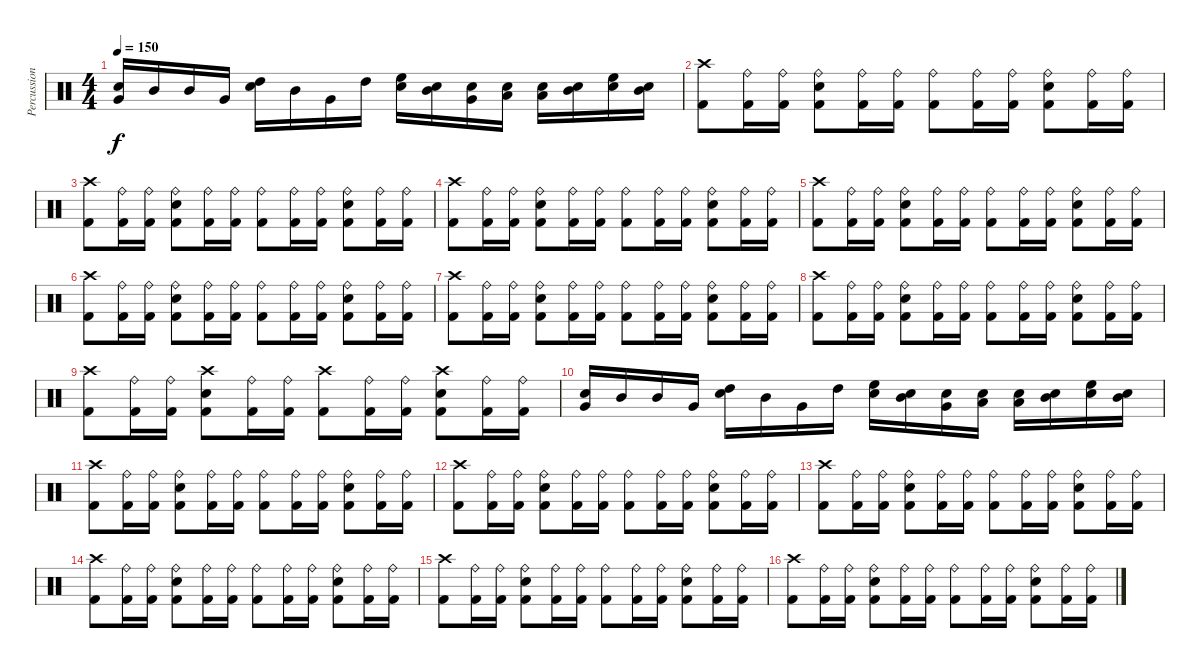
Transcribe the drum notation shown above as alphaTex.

\track ("Percussion" "Percussion") {instrument percussion}
\staff {score}
\articulation defaults
\ts (4 4)
\tempo 150
\clef neutral
\ks c
("Electric Snare (hit)" "Very Low Tom (hit)").16{dy f} "Mid Tom (hit)".16 "Mid Tom (hit)".16 "Very Low Tom (hit)".16 ("Electric Snare (hit)" "High Tom (hit)").16 "Mid Tom (hit)".16 "Very Low Tom (hit)".16 "High Tom (hit)".16 ("Electric Snare (hit)" "High Floor Tom (hit)").16 ("Electric Snare (hit)" "Mid Tom (hit)").16 ("Electric Snare (hit)" "Very Low Tom (hit)").16 ("Electric Snare (hit)" "Low Tom (hit)").16 ("Electric Snare (hit)" "Low Tom (hit)").16 ("Electric Snare (hit)" "Mid Tom (hit)").16 ("Electric Snare (hit)" "High Floor Tom (hit)").16 ("Electric Snare (hit)" "Mid Tom (hit)").16 |
("Crash high (hit)" "Kick (hit) 2").8 ("Ride (bell)" "Kick (hit) 2").16 ("Ride (bell)" "Kick (hit) 2").16 ("Ride (bell)" "Snare (hit) 2" "Kick (hit) 2").8 ("Ride (bell)" "Kick (hit) 2").16 ("Ride (bell)" "Kick (hit) 2").16 ("Ride (bell)" "Kick (hit) 2").8 ("Ride (bell)" "Kick (hit) 2").16 ("Ride (bell)" "Kick (hit) 2").16 ("Ride (bell)" "Snare (hit) 2" "Kick (hit) 2").8 ("Ride (bell)" "Kick (hit) 2").16 ("Ride (bell)" "Kick (hit) 2").16 |
("Crash high (hit)" "Kick (hit) 2").8 ("Ride (bell)" "Kick (hit) 2").16 ("Ride (bell)" "Kick (hit) 2").16 ("Ride (bell)" "Snare (hit) 2" "Kick (hit) 2").8 ("Ride (bell)" "Kick (hit) 2").16 ("Ride (bell)" "Kick (hit) 2").16 ("Ride (bell)" "Kick (hit) 2").8 ("Ride (bell)" "Kick (hit) 2").16 ("Ride (bell)" "Kick (hit) 2").16 ("Ride (bell)" "Snare (hit) 2" "Kick (hit) 2").8 ("Ride (bell)" "Kick (hit) 2").16 ("Ride (bell)" "Kick (hit) 2").16 |
("Crash high (hit)" "Kick (hit) 2").8 ("Ride (bell)" "Kick (hit) 2").16 ("Ride (bell)" "Kick (hit) 2").16 ("Ride (bell)" "Snare (hit) 2" "Kick (hit) 2").8 ("Ride (bell)" "Kick (hit) 2").16 ("Ride (bell)" "Kick (hit) 2").16 ("Ride (bell)" "Kick (hit) 2").8 ("Ride (bell)" "Kick (hit) 2").16 ("Ride (bell)" "Kick (hit) 2").16 ("Ride (bell)" "Snare (hit) 2" "Kick (hit) 2").8 ("Ride (bell)" "Kick (hit) 2").16 ("Ride (bell)" "Kick (hit) 2").16 |
("Crash high (hit)" "Kick (hit) 2").8 ("Ride (bell)" "Kick (hit) 2").16 ("Ride (bell)" "Kick (hit) 2").16 ("Ride (bell)" "Snare (hit) 2" "Kick (hit) 2").8 ("Ride (bell)" "Kick (hit) 2").16 ("Ride (bell)" "Kick (hit) 2").16 ("Ride (bell)" "Kick (hit) 2").8 ("Ride (bell)" "Kick (hit) 2").16 ("Ride (bell)" "Kick (hit) 2").16 ("Ride (bell)" "Snare (hit) 2" "Kick (hit) 2").8 ("Ride (bell)" "Kick (hit) 2").16 ("Ride (bell)" "Kick (hit) 2").16 |
("Crash high (hit)" "Kick (hit) 2").8 ("Ride (bell)" "Kick (hit) 2").16 ("Ride (bell)" "Kick (hit) 2").16 ("Ride (bell)" "Snare (hit) 2" "Kick (hit) 2").8 ("Ride (bell)" "Kick (hit) 2").16 ("Ride (bell)" "Kick (hit) 2").16 ("Ride (bell)" "Kick (hit) 2").8 ("Ride (bell)" "Kick (hit) 2").16 ("Ride (bell)" "Kick (hit) 2").16 ("Ride (bell)" "Snare (hit) 2" "Kick (hit) 2").8 ("Ride (bell)" "Kick (hit) 2").16 ("Ride (bell)" "Kick (hit) 2").16 |
("Crash high (hit)" "Kick (hit) 2").8 ("Ride (bell)" "Kick (hit) 2").16 ("Ride (bell)" "Kick (hit) 2").16 ("Ride (bell)" "Snare (hit) 2" "Kick (hit) 2").8 ("Ride (bell)" "Kick (hit) 2").16 ("Ride (bell)" "Kick (hit) 2").16 ("Ride (bell)" "Kick (hit) 2").8 ("Ride (bell)" "Kick (hit) 2").16 ("Ride (bell)" "Kick (hit) 2").16 ("Ride (bell)" "Snare (hit) 2" "Kick (hit) 2").8 ("Ride (bell)" "Kick (hit) 2").16 ("Ride (bell)" "Kick (hit) 2").16 |
("Crash high (hit)" "Kick (hit) 2").8 ("Ride (bell)" "Kick (hit) 2").16 ("Ride (bell)" "Kick (hit) 2").16 ("Ride (bell)" "Snare (hit) 2" "Kick (hit) 2").8 ("Ride (bell)" "Kick (hit) 2").16 ("Ride (bell)" "Kick (hit) 2").16 ("Ride (bell)" "Kick (hit) 2").8 ("Ride (bell)" "Kick (hit) 2").16 ("Ride (bell)" "Kick (hit) 2").16 ("Ride (bell)" "Snare (hit) 2" "Kick (hit) 2").8 ("Ride (bell)" "Kick (hit) 2").16 ("Ride (bell)" "Kick (hit) 2").16 |
("Crash high (hit)" "Kick (hit) 2").8 ("Ride (bell)" "Kick (hit) 2").16 ("Ride (bell)" "Kick (hit) 2").16 ("Crash high (hit)" "Snare (hit) 2" "Kick (hit) 2").8 ("Ride (bell)" "Kick (hit) 2").16 ("Ride (bell)" "Kick (hit) 2").16 ("Crash high (hit)" "Kick (hit) 2").8 ("Ride (bell)" "Kick (hit) 2").16 ("Ride (bell)" "Kick (hit) 2").16 ("Crash high (hit)" "Snare (hit) 2" "Kick (hit) 2").8 ("Ride (bell)" "Kick (hit) 2").16 ("Ride (bell)" "Kick (hit) 2").16 |
("Electric Snare (hit)" "Very Low Tom (hit)").16 "Mid Tom (hit)".16 "Mid Tom (hit)".16 "Very Low Tom (hit)".16 ("Electric Snare (hit)" "High Tom (hit)").16 "Mid Tom (hit)".16 "Very Low Tom (hit)".16 "High Tom (hit)".16 ("Electric Snare (hit)" "High Floor Tom (hit)").16 ("Electric Snare (hit)" "Mid Tom (hit)").16 ("Electric Snare (hit)" "Very Low Tom (hit)").16 ("Electric Snare (hit)" "Low Tom (hit)").16 ("Electric Snare (hit)" "Low Tom (hit)").16 ("Electric Snare (hit)" "Mid Tom (hit)").16 ("Electric Snare (hit)" "High Floor Tom (hit)").16 ("Electric Snare (hit)" "Mid Tom (hit)").16 |
("Crash high (hit)" "Kick (hit) 2").8 ("Ride (bell)" "Kick (hit) 2").16 ("Ride (bell)" "Kick (hit) 2").16 ("Ride (bell)" "Snare (hit) 2" "Kick (hit) 2").8 ("Ride (bell)" "Kick (hit) 2").16 ("Ride (bell)" "Kick (hit) 2").16 ("Ride (bell)" "Kick (hit) 2").8 ("Ride (bell)" "Kick (hit) 2").16 ("Ride (bell)" "Kick (hit) 2").16 ("Ride (bell)" "Snare (hit) 2" "Kick (hit) 2").8 ("Ride (bell)" "Kick (hit) 2").16 ("Ride (bell)" "Kick (hit) 2").16 |
("Crash high (hit)" "Kick (hit) 2").8 ("Ride (bell)" "Kick (hit) 2").16 ("Ride (bell)" "Kick (hit) 2").16 ("Ride (bell)" "Snare (hit) 2" "Kick (hit) 2").8 ("Ride (bell)" "Kick (hit) 2").16 ("Ride (bell)" "Kick (hit) 2").16 ("Ride (bell)" "Kick (hit) 2").8 ("Ride (bell)" "Kick (hit) 2").16 ("Ride (bell)" "Kick (hit) 2").16 ("Ride (bell)" "Snare (hit) 2" "Kick (hit) 2").8 ("Ride (bell)" "Kick (hit) 2").16 ("Ride (bell)" "Kick (hit) 2").16 |
("Crash high (hit)" "Kick (hit) 2").8 ("Ride (bell)" "Kick (hit) 2").16 ("Ride (bell)" "Kick (hit) 2").16 ("Ride (bell)" "Snare (hit) 2" "Kick (hit) 2").8 ("Ride (bell)" "Kick (hit) 2").16 ("Ride (bell)" "Kick (hit) 2").16 ("Ride (bell)" "Kick (hit) 2").8 ("Ride (bell)" "Kick (hit) 2").16 ("Ride (bell)" "Kick (hit) 2").16 ("Ride (bell)" "Snare (hit) 2" "Kick (hit) 2").8 ("Ride (bell)" "Kick (hit) 2").16 ("Ride (bell)" "Kick (hit) 2").16 |
("Crash high (hit)" "Kick (hit) 2").8 ("Ride (bell)" "Kick (hit) 2").16 ("Ride (bell)" "Kick (hit) 2").16 ("Ride (bell)" "Snare (hit) 2" "Kick (hit) 2").8 ("Ride (bell)" "Kick (hit) 2").16 ("Ride (bell)" "Kick (hit) 2").16 ("Ride (bell)" "Kick (hit) 2").8 ("Ride (bell)" "Kick (hit) 2").16 ("Ride (bell)" "Kick (hit) 2").16 ("Ride (bell)" "Snare (hit) 2" "Kick (hit) 2").8 ("Ride (bell)" "Kick (hit) 2").16 ("Ride (bell)" "Kick (hit) 2").16 |
("Crash high (hit)" "Kick (hit) 2").8 ("Ride (bell)" "Kick (hit) 2").16 ("Ride (bell)" "Kick (hit) 2").16 ("Ride (bell)" "Snare (hit) 2" "Kick (hit) 2").8 ("Ride (bell)" "Kick (hit) 2").16 ("Ride (bell)" "Kick (hit) 2").16 ("Ride (bell)" "Kick (hit) 2").8 ("Ride (bell)" "Kick (hit) 2").16 ("Ride (bell)" "Kick (hit) 2").16 ("Ride (bell)" "Snare (hit) 2" "Kick (hit) 2").8 ("Ride (bell)" "Kick (hit) 2").16 ("Ride (bell)" "Kick (hit) 2").16 |
("Crash high (hit)" "Kick (hit) 2").8 ("Ride (bell)" "Kick (hit) 2").16 ("Ride (bell)" "Kick (hit) 2").16 ("Ride (bell)" "Snare (hit) 2" "Kick (hit) 2").8 ("Ride (bell)" "Kick (hit) 2").16 ("Ride (bell)" "Kick (hit) 2").16 ("Ride (bell)" "Kick (hit) 2").8 ("Ride (bell)" "Kick (hit) 2").16 ("Ride (bell)" "Kick (hit) 2").16 ("Ride (bell)" "Snare (hit) 2" "Kick (hit) 2").8 ("Ride (bell)" "Kick (hit) 2").16 ("Ride (bell)" "Kick (hit) 2").16
